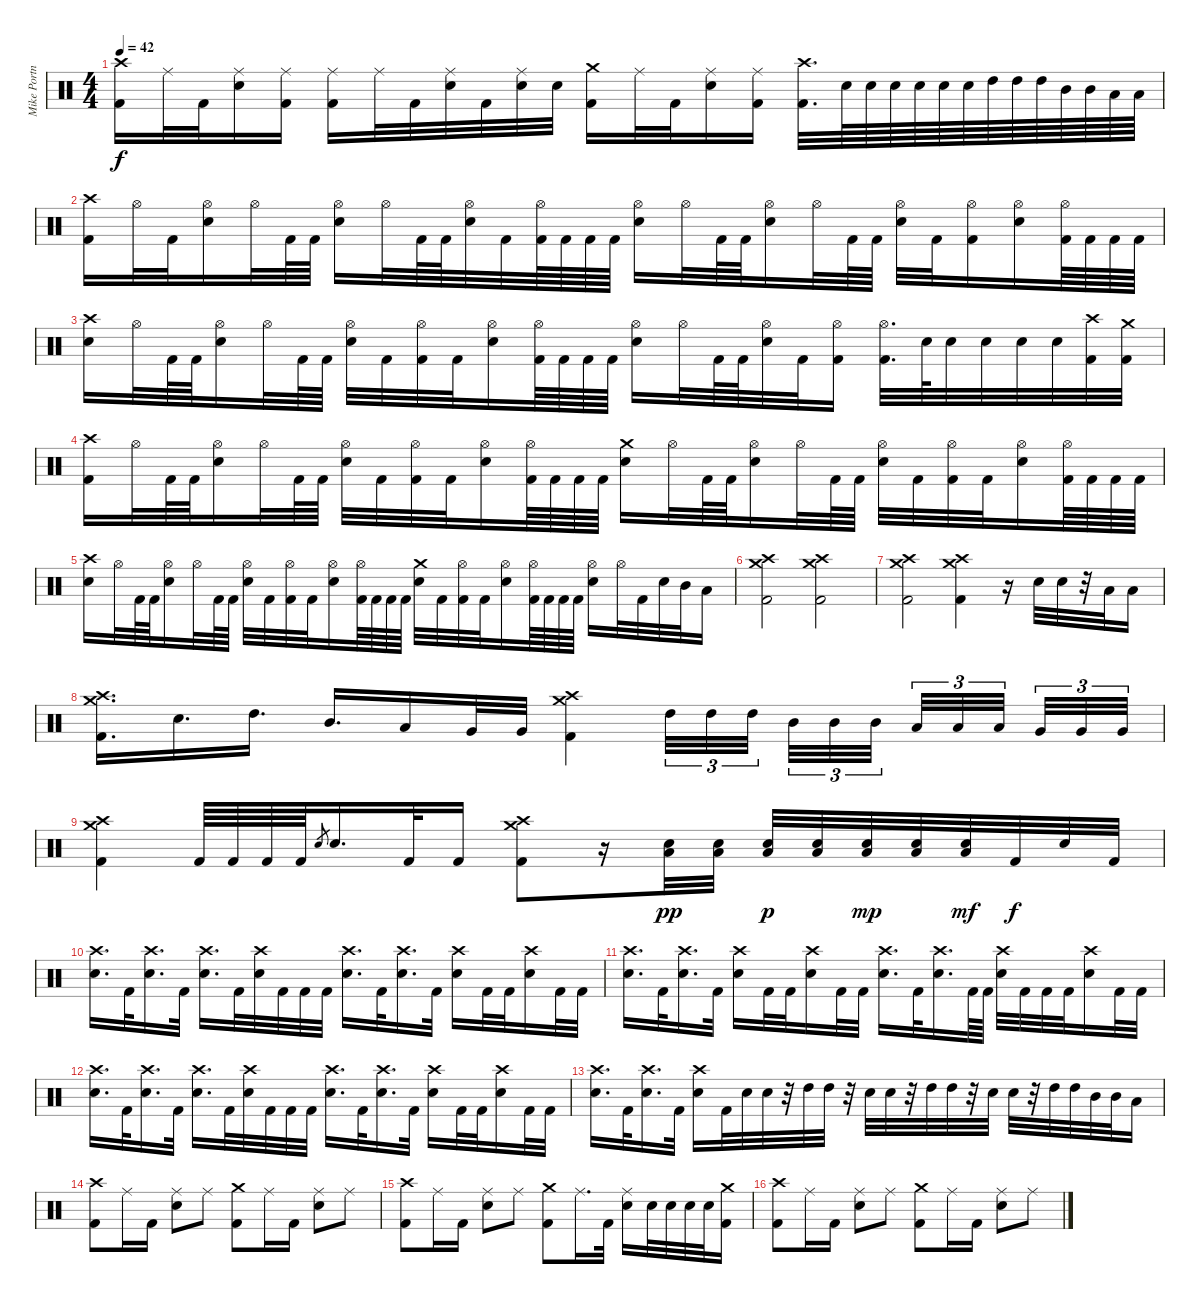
\track ("Mike Portnoy" "Mike Portn") {instrument percussion}
\staff {score}
\articulation defaults
\ts (4 4)
\tempo 42
\clef neutral
\ks c
("Crash high (hit)" "Kick (hit) 2").16{dy f} "Ride (middle)".32 "Kick (hit) 2".32 ("Ride (middle)" "Snare (hit) 2").16 ("Ride (middle)" "Kick (hit) 2").16 ("Ride (middle)" "Kick (hit) 2").16 "Ride (middle)".32 "Kick (hit) 2".32 ("Ride (middle)" "Snare (hit) 2").32 "Kick (hit) 2".32 ("Ride (middle)" "Snare (hit) 2").32 "Snare (hit) 2".32 ("Crash medium (hit)" "Kick (hit) 2").16 "Ride (middle)".32 "Kick (hit) 2".32 ("Ride (middle)" "Snare (hit) 2").16 ("Ride (middle)" "Kick (hit) 2").16 ("Crash high (hit)" "Kick (hit) 2").32{d} "Snare (hit) 2".64 "Snare (hit) 2".64 "Snare (hit) 2".64 "Snare (hit) 2".64 "Snare (hit) 2".64 "Snare (hit) 2".64 "High Tom (hit)".64 "High Tom (hit)".64 "High Tom (hit)".64 "Mid Tom (hit)".64 "Mid Tom (hit)".64 "Low Tom (hit)".64 "Low Tom (hit)".64 |
("Crash high (hit)" "Kick (hit) 2").16 "Hi-Hat (open)".32 "Kick (hit) 2".32 ("Hi-Hat (open)" "Snare (hit) 2").16 "Hi-Hat (open)".32 "Kick (hit) 2".64 "Kick (hit) 2".64 ("Hi-Hat (open)" "Snare (hit) 2").16 "Hi-Hat (open)".32 "Kick (hit) 2".64 "Kick (hit) 2".64 ("Hi-Hat (open)" "Snare (hit) 2").32 "Kick (hit) 2".32 ("Hi-Hat (open)" "Kick (hit) 2").64 "Kick (hit) 2".64 "Kick (hit) 2".64 "Kick (hit) 2".64 ("Hi-Hat (open)" "Snare (hit) 2").16 "Hi-Hat (open)".32 "Kick (hit) 2".64 "Kick (hit) 2".64 ("Hi-Hat (open)" "Snare (hit) 2").16 "Hi-Hat (open)".32 "Kick (hit) 2".64 "Kick (hit) 2".64 ("Hi-Hat (open)" "Snare (hit) 2").32 "Kick (hit) 2".32 ("Hi-Hat (open)" "Kick (hit) 2").16 ("Hi-Hat (open)" "Snare (hit) 2").16 ("Hi-Hat (open)" "Kick (hit) 2").64 "Kick (hit) 2".64 "Kick (hit) 2".64 "Kick (hit) 2".64 |
("Crash high (hit)" "Snare (hit) 2").16 "Hi-Hat (open)".32 "Kick (hit) 2".64 "Kick (hit) 2".64 ("Hi-Hat (open)" "Snare (hit) 2").16 "Hi-Hat (open)".32 "Kick (hit) 2".64 "Kick (hit) 2".64 ("Hi-Hat (open)" "Snare (hit) 2").32 "Kick (hit) 2".32 ("Hi-Hat (open)" "Kick (hit) 2").32 "Kick (hit) 2".32 ("Hi-Hat (open)" "Snare (hit) 2").16 ("Hi-Hat (open)" "Kick (hit) 2").64 "Kick (hit) 2".64 "Kick (hit) 2".64 "Kick (hit) 2".64 ("Hi-Hat (open)" "Snare (hit) 2").16 "Hi-Hat (open)".32 "Kick (hit) 2".64 "Kick (hit) 2".64 ("Hi-Hat (open)" "Snare (hit) 2").32 "Kick (hit) 2".32 ("Hi-Hat (open)" "Kick (hit) 2").16 ("Hi-Hat (open)" "Kick (hit) 2").32{d} "Snare (hit) 2".64 "Snare (hit) 2".32 "Snare (hit) 2".32 "Snare (hit) 2".32 "Snare (hit) 2".32 ("Crash high (hit)" "Kick (hit) 2").32 ("Crash medium (hit)" "Kick (hit) 2").32 |
("Crash high (hit)" "Kick (hit) 2").16 "Hi-Hat (open)".32 "Kick (hit) 2".64 "Kick (hit) 2".64 ("Hi-Hat (open)" "Snare (hit) 2").16 "Hi-Hat (open)".32 "Kick (hit) 2".64 "Kick (hit) 2".64 ("Hi-Hat (open)" "Snare (hit) 2").32 "Kick (hit) 2".32 ("Hi-Hat (open)" "Kick (hit) 2").32 "Kick (hit) 2".32 ("Hi-Hat (open)" "Snare (hit) 2").16 ("Hi-Hat (open)" "Kick (hit) 2").64 "Kick (hit) 2".64 "Kick (hit) 2".64 "Kick (hit) 2".64 ("Crash medium (hit)" "Snare (hit) 2").16 "Hi-Hat (open)".32 "Kick (hit) 2".64 "Kick (hit) 2".64 ("Hi-Hat (open)" "Snare (hit) 2").16 "Hi-Hat (open)".32 "Kick (hit) 2".64 "Kick (hit) 2".64 ("Hi-Hat (open)" "Snare (hit) 2").32 "Kick (hit) 2".32 ("Hi-Hat (open)" "Kick (hit) 2").32 "Kick (hit) 2".32 ("Hi-Hat (open)" "Snare (hit) 2").16 ("Hi-Hat (open)" "Kick (hit) 2").64 "Kick (hit) 2".64 "Kick (hit) 2".64 "Kick (hit) 2".64 |
("Crash high (hit)" "Snare (hit) 2").16 "Hi-Hat (open)".32 "Kick (hit) 2".64 "Kick (hit) 2".64 ("Hi-Hat (open)" "Snare (hit) 2").16 "Hi-Hat (open)".32 "Kick (hit) 2".64 "Kick (hit) 2".64 ("Hi-Hat (open)" "Snare (hit) 2").32 "Kick (hit) 2".32 ("Hi-Hat (open)" "Kick (hit) 2").32 "Kick (hit) 2".32 ("Hi-Hat (open)" "Snare (hit) 2").16 ("Hi-Hat (open)" "Kick (hit) 2").64 "Kick (hit) 2".64 "Kick (hit) 2".64 "Kick (hit) 2".64 ("Crash medium (hit)" "Snare (hit) 2").32 "Kick (hit) 2".32 ("Hi-Hat (open)" "Kick (hit) 2").32 "Kick (hit) 2".32 ("Hi-Hat (open)" "Snare (hit) 2").16 ("Hi-Hat (open)" "Kick (hit) 2").64 "Kick (hit) 2".64 "Kick (hit) 2".64 "Kick (hit) 2".64 ("Hi-Hat (open)" "Snare (hit) 2").16 "Hi-Hat (open)".32 "Kick (hit) 2".32 "Snare (hit) 2".32 "Mid Tom (hit)".32 "Low Tom (hit)".16 |
("Crash high (hit)" "Crash medium (hit)" "Kick (hit) 2").2 ("Crash high (hit)" "Crash medium (hit)" "Kick (hit) 2").2 |
("Crash high (hit)" "Crash medium (hit)" "Kick (hit) 2").2 ("Crash high (hit)" "Crash medium (hit)" "Kick (hit) 2").4 r.16 "Snare (hit) 2".32 "Snare (hit) 2".32 r.32 "Low Tom (hit)".32 "Low Tom (hit)".16 |
("Crash high (hit)" "Crash medium (hit)" "Kick (hit) 2").16{d} "Snare (hit) 2".16{d} "High Tom (hit)".16{d} "Mid Tom (hit)".16{d} "Low Tom (hit)".16 "Very Low Tom (hit)".32 "Very Low Tom (hit)".32 ("Crash high (hit)" "Crash medium (hit)" "Kick (hit) 2").4 "High Tom (hit)".32{tu (3 2)} "High Tom (hit)".32{tu (3 2)} "High Tom (hit)".32{tu (3 2) beam splitsecondary} "Mid Tom (hit)".32{tu (3 2)} "Mid Tom (hit)".32{tu (3 2)} "Mid Tom (hit)".32{tu (3 2) beam splitsecondary} "Low Tom (hit)".32{tu (3 2)} "Low Tom (hit)".32{tu (3 2)} "Low Tom (hit)".32{tu (3 2) beam splitsecondary} "Very Low Tom (hit)".32{tu (3 2)} "Very Low Tom (hit)".32{tu (3 2)} "Very Low Tom (hit)".32{tu (3 2)} |
("Crash high (hit)" "Crash medium (hit)" "Kick (hit) 2").4 "Kick (hit) 2".64 "Kick (hit) 2".64 "Kick (hit) 2".64 "Kick (hit) 2".64 "Snare (hit) 2".8{gr} "Snare (hit) 2".16{d} "Kick (hit) 2".32 "Kick (hit) 2".16 ("Crash high (hit)" "Crash medium (hit)" "Kick (hit) 2").8 r.16 ("Snare (hit) 2" "Low Tom (hit)").32{dy pp} ("Snare (hit) 2" "Low Tom (hit)").32 ("Snare (hit) 2" "Low Tom (hit)").32{dy p} ("Snare (hit) 2" "Low Tom (hit)").32 ("Snare (hit) 2" "Low Tom (hit)").32{dy mp} ("Snare (hit) 2" "Low Tom (hit)").32 ("Snare (hit) 2" "Low Tom (hit)").32{dy mf} "Kick (hit) 2".32{dy f} "Snare (hit) 2".32 "Kick (hit) 2".32 |
("Crash high (hit)" "Snare (hit) 2").16{d} "Kick (hit) 2".32 ("Crash high (hit)" "Snare (hit) 2").16{d} "Kick (hit) 2".32 ("Crash high (hit)" "Snare (hit) 2").16{d} "Kick (hit) 2".32 ("Crash high (hit)" "Snare (hit) 2").32 "Kick (hit) 2".32 "Kick (hit) 2".32 "Kick (hit) 2".32 ("Crash high (hit)" "Snare (hit) 2").16{d} "Kick (hit) 2".32 ("Crash high (hit)" "Snare (hit) 2").16{d} "Kick (hit) 2".32 ("Crash high (hit)" "Snare (hit) 2").16 "Kick (hit) 2".32 "Kick (hit) 2".32 ("Crash high (hit)" "Snare (hit) 2").16 "Kick (hit) 2".32 "Kick (hit) 2".32 |
("Crash high (hit)" "Snare (hit) 2").16{d} "Kick (hit) 2".32 ("Crash high (hit)" "Snare (hit) 2").16{d} "Kick (hit) 2".32 ("Crash high (hit)" "Snare (hit) 2").16 "Kick (hit) 2".32 "Kick (hit) 2".32 ("Crash high (hit)" "Snare (hit) 2").16 "Kick (hit) 2".32 "Kick (hit) 2".32 ("Crash high (hit)" "Snare (hit) 2").16{d} "Kick (hit) 2".32 ("Crash high (hit)" "Snare (hit) 2").16{d} "Kick (hit) 2".64 "Kick (hit) 2".64 ("Crash high (hit)" "Snare (hit) 2").32 "Kick (hit) 2".32 "Kick (hit) 2".32 "Kick (hit) 2".32 ("Crash high (hit)" "Snare (hit) 2").16 "Kick (hit) 2".32 "Kick (hit) 2".32 |
("Crash high (hit)" "Snare (hit) 2").16{d} "Kick (hit) 2".32 ("Crash high (hit)" "Snare (hit) 2").16{d} "Kick (hit) 2".32 ("Crash high (hit)" "Snare (hit) 2").16{d} "Kick (hit) 2".32 ("Crash high (hit)" "Snare (hit) 2").32 "Kick (hit) 2".32 "Kick (hit) 2".32 "Kick (hit) 2".32 ("Crash high (hit)" "Snare (hit) 2").16{d} "Kick (hit) 2".32 ("Crash high (hit)" "Snare (hit) 2").16{d} "Kick (hit) 2".32 ("Crash high (hit)" "Snare (hit) 2").16 "Kick (hit) 2".32 "Kick (hit) 2".32 ("Crash high (hit)" "Snare (hit) 2").16 "Kick (hit) 2".32 "Kick (hit) 2".32 |
("Crash high (hit)" "Snare (hit) 2").16{d} "Kick (hit) 2".32 ("Crash high (hit)" "Snare (hit) 2").16{d} "Kick (hit) 2".32 ("Crash high (hit)" "Snare (hit) 2").16 "Kick (hit) 2".32 "Snare (hit) 2".32 "Snare (hit) 2".32 r.32 "High Tom (hit)".32 "High Tom (hit)".32 r.32 "Snare (hit) 2".32 "Snare (hit) 2".32 r.32 "High Tom (hit)".32 "High Tom (hit)".32 r.32 "Snare (hit) 2".32 "Snare (hit) 2".32 r.32 "High Tom (hit)".32 "High Tom (hit)".32 "Mid Tom (hit)".32 "Mid Tom (hit)".32 "Low Tom (hit)".16 |
("Crash high (hit)" "Kick (hit) 2").8 "Ride (middle)".16 "Kick (hit) 2".16 ("Ride (middle)" "Snare (hit) 2").8 "Ride (middle)".8 ("Crash medium (hit)" "Kick (hit) 2").8 "Ride (middle)".16 "Kick (hit) 2".16 ("Ride (middle)" "Snare (hit) 2").8 "Ride (middle)".8 |
("Crash high (hit)" "Kick (hit) 2").8 "Ride (middle)".16 "Kick (hit) 2".16 ("Ride (middle)" "Snare (hit) 2").8 "Ride (middle)".8 ("Crash medium (hit)" "Kick (hit) 2").8 "Ride (middle)".16{d} "Kick (hit) 2".32 ("Ride (middle)" "Snare (hit) 2").16 "Snare (hit) 2".32 "Snare (hit) 2".32 "Snare (hit) 2".32 "Snare (hit) 2".32 ("Crash medium (hit)" "Kick (hit) 2").16 |
("Crash high (hit)" "Kick (hit) 2").8 "Ride (middle)".16 "Kick (hit) 2".16 ("Ride (middle)" "Snare (hit) 2").8 "Ride (middle)".8 ("Crash medium (hit)" "Kick (hit) 2").8 "Ride (middle)".16 "Kick (hit) 2".16 ("Ride (middle)" "Snare (hit) 2").8 "Ride (middle)".8
